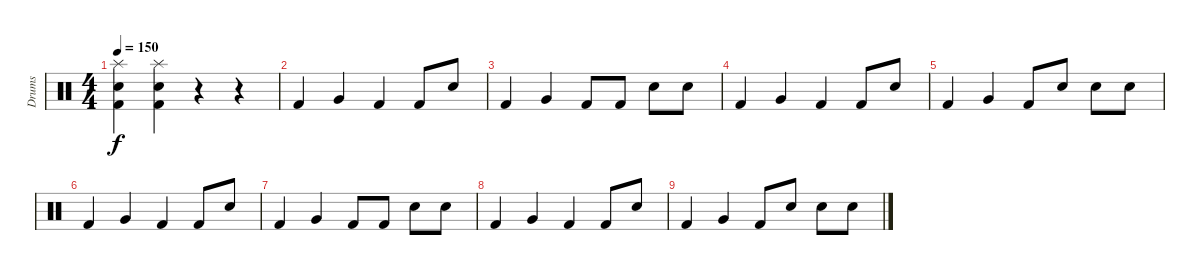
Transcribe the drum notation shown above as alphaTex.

\track ("Drums" "Drums") {instrument percussion}
\staff {score}
\articulation defaults
\ts (4 4)
\tempo 150
\clef neutral
\ks c
("Splash (hit)" "Snare (hit) 2" "Kick (hit) 2").4{dy f} ("Splash (hit)" "Snare (hit) 2" "Kick (hit) 2").4 r.4 r.4 |
"Kick (hit) 2".4 "Very Low Tom (hit)".4 "Kick (hit) 2".4 "Kick (hit) 2".8 "Snare (hit) 2".8 |
"Kick (hit) 2".4 "Very Low Tom (hit)".4 "Kick (hit) 2".8 "Kick (hit) 2".8 "Snare (hit) 2".8 "Snare (hit) 2".8 |
"Kick (hit) 2".4 "Very Low Tom (hit)".4 "Kick (hit) 2".4 "Kick (hit) 2".8 "Snare (hit) 2".8 |
"Kick (hit) 2".4 "Very Low Tom (hit)".4 "Kick (hit) 2".8 "Snare (hit) 2".8 "Snare (hit) 2".8 "Snare (hit) 2".8 |
"Kick (hit) 2".4 "Very Low Tom (hit)".4 "Kick (hit) 2".4 "Kick (hit) 2".8 "Snare (hit) 2".8 |
"Kick (hit) 2".4 "Very Low Tom (hit)".4 "Kick (hit) 2".8 "Kick (hit) 2".8 "Snare (hit) 2".8 "Snare (hit) 2".8 |
"Kick (hit) 2".4 "Very Low Tom (hit)".4 "Kick (hit) 2".4 "Kick (hit) 2".8 "Snare (hit) 2".8 |
"Kick (hit) 2".4 "Very Low Tom (hit)".4 "Kick (hit) 2".8 "Snare (hit) 2".8 "Snare (hit) 2".8 "Snare (hit) 2".8
